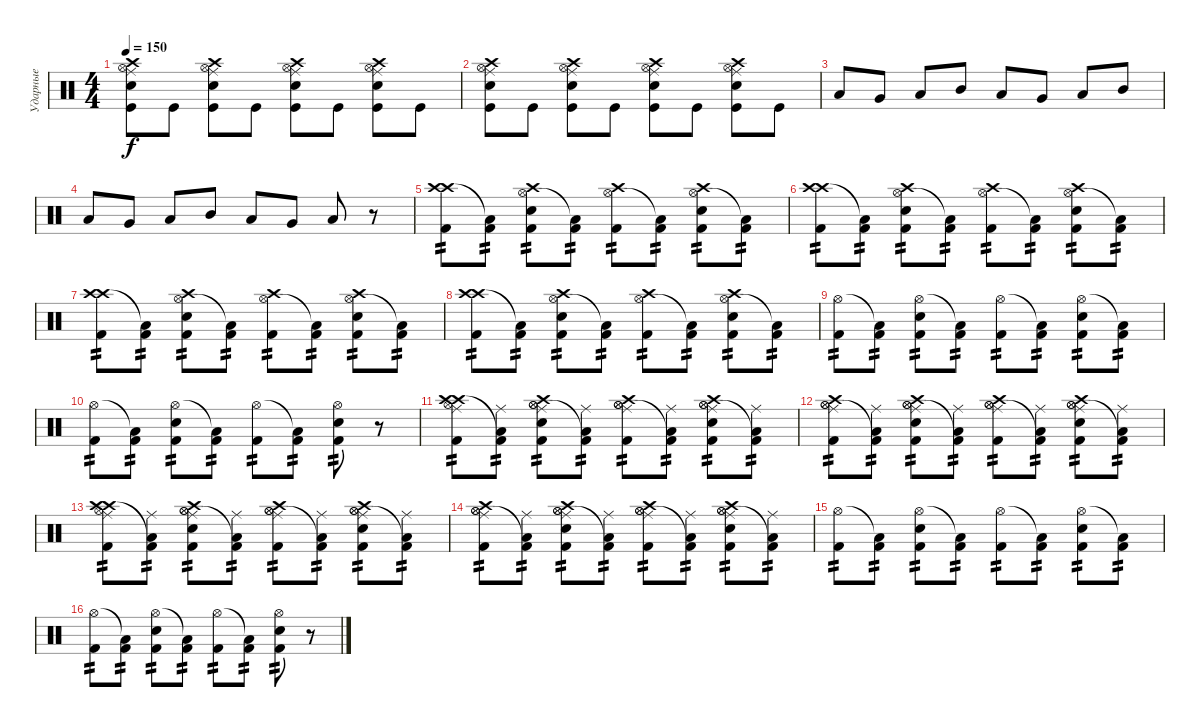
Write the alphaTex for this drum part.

\track ("Ударные" "Ударные") {instrument percussion}
\staff {score}
\articulation defaults
\ts (4 4)
\tempo 150
\clef neutral
\ks c
("Crash high (hit)" "Ride (middle)" "Hi-Hat (open)" "Kick (hit)" "Snare (hit) 2").8{dy f} "Kick (hit)".8 ("Crash high (hit)" "Ride (middle)" "Hi-Hat (open)" "Kick (hit)" "Snare (hit) 2").8 "Kick (hit)".8 ("Crash high (hit)" "Ride (middle)" "Hi-Hat (open)" "Kick (hit)" "Snare (hit) 2").8 "Kick (hit)".8 ("Crash high (hit)" "Ride (middle)" "Hi-Hat (open)" "Kick (hit)" "Snare (hit) 2").8 "Kick (hit)".8 |
("Crash high (hit)" "Ride (middle)" "Hi-Hat (open)" "Kick (hit)" "Snare (hit) 2").8 "Kick (hit)".8 ("Crash high (hit)" "Ride (middle)" "Hi-Hat (open)" "Kick (hit)" "Snare (hit) 2").8 "Kick (hit)".8 ("Crash high (hit)" "Ride (middle)" "Hi-Hat (open)" "Kick (hit)" "Snare (hit) 2").8 "Kick (hit)".8 ("Crash high (hit)" "Ride (middle)" "Hi-Hat (open)" "Kick (hit)" "Snare (hit) 2").8 "Kick (hit)".8 |
"Low Floor Tom (hit)".8 "Very Low Tom (hit)".8 "Low Tom (hit)".8 "Mid Tom (hit)".8 "Low Floor Tom (hit)".8 "Very Low Tom (hit)".8 "Low Tom (hit)".8 "Mid Tom (hit)".8 |
"Low Floor Tom (hit)".8 "Very Low Tom (hit)".8 "Low Tom (hit)".8 "Mid Tom (hit)".8 "Low Floor Tom (hit)".8 "Very Low Tom (hit)".8 "Low Tom (hit)".8 r.8 |
("Crash high (hit)" "Kick (hit) 2" "Crash high (hit)").8{tp 2} ("Low Tom (hit)"{t} "Kick (hit) 2").8{tp 2} ("Hi-Hat (open)" "Electric Snare (hit)" "Kick (hit) 2" "Crash high (hit)").8{tp 2} ("Low Tom (hit)"{t} "Kick (hit) 2").8{tp 2} ("Hi-Hat (open)" "Kick (hit) 2" "Crash high (hit)").8{tp 2} ("Low Tom (hit)"{t} "Kick (hit) 2").8{tp 2} ("Hi-Hat (open)" "Electric Snare (hit)" "Kick (hit) 2" "Crash high (hit)").8{tp 2} ("Low Tom (hit)"{t} "Kick (hit) 2").8{tp 2} |
("Crash high (hit)" "Kick (hit) 2" "Crash high (hit)").8{tp 2} ("Low Tom (hit)"{t} "Kick (hit) 2").8{tp 2} ("Hi-Hat (open)" "Electric Snare (hit)" "Kick (hit) 2" "Crash high (hit)").8{tp 2} ("Low Tom (hit)"{t} "Kick (hit) 2").8{tp 2} ("Hi-Hat (open)" "Kick (hit) 2" "Crash high (hit)").8{tp 2} ("Low Tom (hit)"{t} "Kick (hit) 2").8{tp 2} ("Hi-Hat (open)" "Electric Snare (hit)" "Kick (hit) 2" "Crash high (hit)").8{tp 2} ("Low Tom (hit)"{t} "Kick (hit) 2").8{tp 2} |
("Crash high (hit)" "Kick (hit) 2" "Crash high (hit)").8{tp 2} ("Low Tom (hit)"{t} "Kick (hit) 2").8{tp 2} ("Hi-Hat (open)" "Electric Snare (hit)" "Kick (hit) 2" "Crash high (hit)").8{tp 2} ("Low Tom (hit)"{t} "Kick (hit) 2").8{tp 2} ("Hi-Hat (open)" "Kick (hit) 2" "Crash high (hit)").8{tp 2} ("Low Tom (hit)"{t} "Kick (hit) 2").8{tp 2} ("Hi-Hat (open)" "Electric Snare (hit)" "Kick (hit) 2" "Crash high (hit)").8{tp 2} ("Low Tom (hit)"{t} "Kick (hit) 2").8{tp 2} |
("Crash high (hit)" "Kick (hit) 2" "Crash high (hit)").8{tp 2} ("Low Tom (hit)"{t} "Kick (hit) 2").8{tp 2} ("Hi-Hat (open)" "Electric Snare (hit)" "Kick (hit) 2" "Crash high (hit)").8{tp 2} ("Low Tom (hit)"{t} "Kick (hit) 2").8{tp 2} ("Hi-Hat (open)" "Kick (hit) 2" "Crash high (hit)").8{tp 2} ("Low Tom (hit)"{t} "Kick (hit) 2").8{tp 2} ("Hi-Hat (open)" "Electric Snare (hit)" "Kick (hit) 2" "Crash high (hit)").8{tp 2} ("Low Tom (hit)"{t} "Kick (hit) 2").8{tp 2} |
("Hi-Hat (open)" "Kick (hit) 2").8{tp 2} ("Low Tom (hit)"{t} "Kick (hit) 2").8{tp 2} ("Hi-Hat (open)" "Electric Snare (hit)" "Kick (hit) 2").8{tp 2} ("Low Tom (hit)"{t} "Kick (hit) 2").8{tp 2} ("Hi-Hat (open)" "Kick (hit) 2").8{tp 2} ("Low Tom (hit)"{t} "Kick (hit) 2").8{tp 2} ("Hi-Hat (open)" "Electric Snare (hit)" "Kick (hit) 2").8{tp 2} ("Low Tom (hit)"{t} "Kick (hit) 2").8{tp 2} |
("Hi-Hat (open)" "Kick (hit) 2").8{tp 2} ("Low Tom (hit)"{t} "Kick (hit) 2").8{tp 2} ("Hi-Hat (open)" "Electric Snare (hit)" "Kick (hit) 2").8{tp 2} ("Low Tom (hit)"{t} "Kick (hit) 2").8{tp 2} ("Hi-Hat (open)" "Kick (hit) 2").8{tp 2} ("Low Tom (hit)"{t} "Kick (hit) 2").8{tp 2} ("Hi-Hat (open)" "Electric Snare (hit)" "Kick (hit) 2").8{tp 2} r.8 |
("Crash high (hit)" "Kick (hit) 2" "Hi-Hat (open)" "Ride (middle)" "Crash high (hit)").8{tp 2} ("Low Tom (hit)"{t} "Kick (hit) 2" "Ride (middle)").8{tp 2} ("Hi-Hat (open)" "Electric Snare (hit)" "Kick (hit) 2" "Hi-Hat (open)" "Ride (middle)" "Crash high (hit)").8{tp 2} ("Low Tom (hit)"{t} "Kick (hit) 2" "Ride (middle)").8{tp 2} ("Hi-Hat (open)" "Kick (hit) 2" "Hi-Hat (open)" "Ride (middle)" "Crash high (hit)").8{tp 2} ("Low Tom (hit)"{t} "Kick (hit) 2" "Ride (middle)").8{tp 2} ("Hi-Hat (open)" "Electric Snare (hit)" "Kick (hit) 2" "Hi-Hat (open)" "Ride (middle)" "Crash high (hit)").8{tp 2} ("Low Tom (hit)"{t} "Kick (hit) 2" "Ride (middle)").8{tp 2} |
("Hi-Hat (open)" "Kick (hit) 2" "Hi-Hat (open)" "Ride (middle)" "Crash high (hit)").8{tp 2} ("Low Tom (hit)"{t} "Kick (hit) 2" "Ride (middle)").8{tp 2} ("Hi-Hat (open)" "Electric Snare (hit)" "Kick (hit) 2" "Hi-Hat (open)" "Ride (middle)" "Crash high (hit)").8{tp 2} ("Low Tom (hit)"{t} "Kick (hit) 2" "Ride (middle)").8{tp 2} ("Hi-Hat (open)" "Kick (hit) 2" "Hi-Hat (open)" "Ride (middle)" "Crash high (hit)").8{tp 2} ("Low Tom (hit)"{t} "Kick (hit) 2" "Ride (middle)").8{tp 2} ("Hi-Hat (open)" "Electric Snare (hit)" "Kick (hit) 2" "Hi-Hat (open)" "Ride (middle)" "Crash high (hit)").8{tp 2} ("Low Tom (hit)"{t} "Kick (hit) 2" "Ride (middle)").8{tp 2} |
("Crash high (hit)" "Kick (hit) 2" "Hi-Hat (open)" "Ride (middle)" "Crash high (hit)").8{tp 2} ("Low Tom (hit)"{t} "Kick (hit) 2" "Ride (middle)").8{tp 2} ("Hi-Hat (open)" "Electric Snare (hit)" "Kick (hit) 2" "Hi-Hat (open)" "Ride (middle)" "Crash high (hit)").8{tp 2} ("Low Tom (hit)"{t} "Kick (hit) 2" "Ride (middle)").8{tp 2} ("Hi-Hat (open)" "Kick (hit) 2" "Hi-Hat (open)" "Ride (middle)" "Crash high (hit)").8{tp 2} ("Low Tom (hit)"{t} "Kick (hit) 2" "Ride (middle)").8{tp 2} ("Hi-Hat (open)" "Electric Snare (hit)" "Kick (hit) 2" "Hi-Hat (open)" "Ride (middle)" "Crash high (hit)").8{tp 2} ("Low Tom (hit)"{t} "Kick (hit) 2" "Ride (middle)").8{tp 2} |
("Hi-Hat (open)" "Kick (hit) 2" "Hi-Hat (open)" "Ride (middle)" "Crash high (hit)").8{tp 2} ("Low Tom (hit)"{t} "Kick (hit) 2" "Ride (middle)").8{tp 2} ("Hi-Hat (open)" "Electric Snare (hit)" "Kick (hit) 2" "Hi-Hat (open)" "Ride (middle)" "Crash high (hit)").8{tp 2} ("Low Tom (hit)"{t} "Kick (hit) 2" "Ride (middle)").8{tp 2} ("Hi-Hat (open)" "Kick (hit) 2" "Hi-Hat (open)" "Ride (middle)" "Crash high (hit)").8{tp 2} ("Low Tom (hit)"{t} "Kick (hit) 2" "Ride (middle)").8{tp 2} ("Hi-Hat (open)" "Electric Snare (hit)" "Kick (hit) 2" "Hi-Hat (open)" "Ride (middle)" "Crash high (hit)").8{tp 2} ("Low Tom (hit)"{t} "Kick (hit) 2" "Ride (middle)").8{tp 2} |
("Hi-Hat (open)" "Kick (hit) 2").8{tp 2} ("Low Tom (hit)"{t} "Kick (hit) 2").8{tp 2} ("Hi-Hat (open)" "Electric Snare (hit)" "Kick (hit) 2").8{tp 2} ("Low Tom (hit)"{t} "Kick (hit) 2").8{tp 2} ("Hi-Hat (open)" "Kick (hit) 2").8{tp 2} ("Low Tom (hit)"{t} "Kick (hit) 2").8{tp 2} ("Hi-Hat (open)" "Electric Snare (hit)" "Kick (hit) 2").8{tp 2} ("Low Tom (hit)"{t} "Kick (hit) 2").8{tp 2} |
("Hi-Hat (open)" "Kick (hit) 2").8{tp 2} ("Low Tom (hit)"{t} "Kick (hit) 2").8{tp 2} ("Hi-Hat (open)" "Electric Snare (hit)" "Kick (hit) 2").8{tp 2} ("Low Tom (hit)"{t} "Kick (hit) 2").8{tp 2} ("Hi-Hat (open)" "Kick (hit) 2").8{tp 2} ("Low Tom (hit)"{t} "Kick (hit) 2").8{tp 2} ("Hi-Hat (open)" "Electric Snare (hit)" "Kick (hit) 2").8{tp 2} r.8
